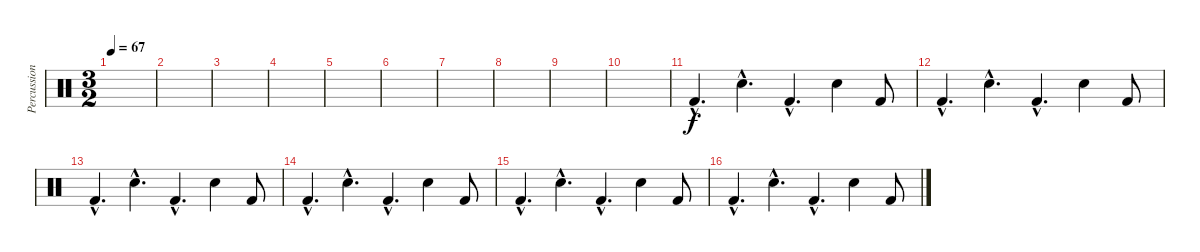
\track ("Percussion" "Percussion") {instrument percussion}
\staff {score}
\articulation defaults
\ts (3 2)
\tempo 67
\clef neutral
\ks c
|
|
|
|
|
|
|
|
|
|
"Kick (hit) 2"{hac}.4{d} "Snare (hit) 2"{hac}.4{d} "Kick (hit) 2"{hac}.4{d} "Snare (hit) 2".4 "Kick (hit) 2".8 |
"Kick (hit) 2"{hac}.4{d} "Snare (hit) 2"{hac}.4{d} "Kick (hit) 2"{hac}.4{d} "Snare (hit) 2".4 "Kick (hit) 2".8 |
"Kick (hit) 2"{hac}.4{d} "Snare (hit) 2"{hac}.4{d} "Kick (hit) 2"{hac}.4{d} "Snare (hit) 2".4 "Kick (hit) 2".8 |
"Kick (hit) 2"{hac}.4{d} "Snare (hit) 2"{hac}.4{d} "Kick (hit) 2"{hac}.4{d} "Snare (hit) 2".4 "Kick (hit) 2".8 |
"Kick (hit) 2"{hac}.4{d} "Snare (hit) 2"{hac}.4{d} "Kick (hit) 2"{hac}.4{d} "Snare (hit) 2".4 "Kick (hit) 2".8 |
"Kick (hit) 2"{hac}.4{d} "Snare (hit) 2"{hac}.4{d} "Kick (hit) 2"{hac}.4{d} "Snare (hit) 2".4 "Kick (hit) 2".8
